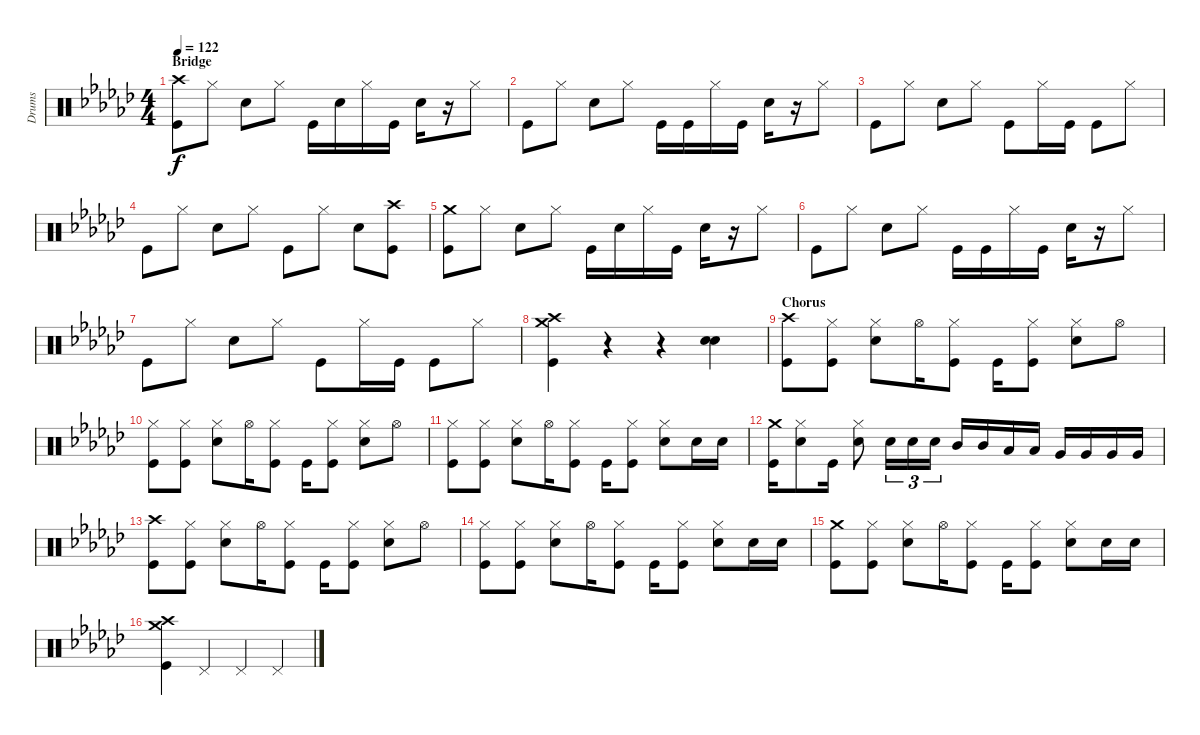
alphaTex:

\track ("Drums" "Drums") {instrument percussion}
\staff {score}
\articulation defaults
\ts (4 4)
\section ("" "Bridge")
\tempo 122
\clef neutral
\ks ebminor
("Crash high (hit)" "Kick (hit)").8{dy f} "Hi-Hat (closed)".8 "Snare (hit) 2".8 "Hi-Hat (closed)".8 "Kick (hit)".16 "Snare (hit) 2".16 "Hi-Hat (closed)".16 "Kick (hit)".16 "Snare (hit) 2".16 r.16 "Hi-Hat (closed)".8 |
"Kick (hit)".8 "Hi-Hat (closed)".8 "Snare (hit) 2".8 "Hi-Hat (closed)".8 "Kick (hit)".16 "Kick (hit)".16 "Hi-Hat (closed)".16 "Kick (hit)".16 "Snare (hit) 2".16 r.16 "Hi-Hat (closed)".8 |
"Kick (hit)".8 "Hi-Hat (closed)".8 "Snare (hit) 2".8 "Hi-Hat (closed)".8 "Kick (hit)".8 "Hi-Hat (closed)".16 "Kick (hit)".16 "Kick (hit)".8 "Hi-Hat (closed)".8 |
"Kick (hit)".8 "Hi-Hat (closed)".8 "Snare (hit) 2".8 "Hi-Hat (closed)".8 "Kick (hit)".8 "Hi-Hat (closed)".8 "Snare (hit) 2".8 ("Crash high (hit)" "Kick (hit)").8 |
("Crash medium (hit)" "Kick (hit)").8 "Hi-Hat (closed)".8 "Snare (hit) 2".8 "Hi-Hat (closed)".8 "Kick (hit)".16 "Snare (hit) 2".16 "Hi-Hat (closed)".16 "Kick (hit)".16 "Snare (hit) 2".16 r.16 "Hi-Hat (closed)".8 |
"Kick (hit)".8 "Hi-Hat (closed)".8 "Snare (hit) 2".8 "Hi-Hat (closed)".8 "Kick (hit)".16 "Kick (hit)".16 "Hi-Hat (closed)".16 "Kick (hit)".16 "Snare (hit) 2".16 r.16 "Hi-Hat (closed)".8 |
"Kick (hit)".8 "Hi-Hat (closed)".8 "Snare (hit) 2".8 "Hi-Hat (closed)".8 "Kick (hit)".8 "Hi-Hat (closed)".16 "Kick (hit)".16 "Kick (hit)".8 "Hi-Hat (closed)".8 |
("Crash medium (hit)" "Crash high (hit)" "Kick (hit)").4 r.4 r.4 ("Snare (hit) 2" "Snare (hit) 2").4 |
\section ("" "Chorus")
("Crash high (hit)" "Kick (hit)").8 ("Hi-Hat (closed)" "Kick (hit)").8 ("Hi-Hat (closed)" "Snare (hit) 2").8 "Hi-Hat (open)".16 ("Hi-Hat (closed)" "Kick (hit)").8 "Kick (hit)".16 ("Hi-Hat (closed)" "Kick (hit)").8 ("Hi-Hat (closed)" "Snare (hit) 2").8 "Hi-Hat (open)".8 |
("Hi-Hat (closed)" "Kick (hit)").8 ("Hi-Hat (closed)" "Kick (hit)").8 ("Hi-Hat (closed)" "Snare (hit) 2").8 "Hi-Hat (open)".16 ("Hi-Hat (closed)" "Kick (hit)").8 "Kick (hit)".16 ("Hi-Hat (closed)" "Kick (hit)").8 ("Hi-Hat (closed)" "Snare (hit) 2").8 "Hi-Hat (open)".8 |
("Hi-Hat (closed)" "Kick (hit)").8 ("Hi-Hat (closed)" "Kick (hit)").8 ("Hi-Hat (closed)" "Snare (hit) 2").8 "Hi-Hat (open)".16 ("Hi-Hat (closed)" "Kick (hit)").8 "Kick (hit)".16 ("Hi-Hat (closed)" "Kick (hit)").8 ("Hi-Hat (closed)" "Snare (hit) 2").8 "Snare (hit) 2".16 "Snare (hit) 2".16 |
("Crash medium (hit)" "Kick (hit)").16 ("Hi-Hat (closed)" "Snare (hit) 2").8 "Kick (hit)".16 ("Hi-Hat (closed)" "Snare (hit) 2").8 "Snare (hit) 2".16{tu (3 2)} "Snare (hit) 2".16{tu (3 2)} "Snare (hit) 2".16{tu (3 2)} "Mid Tom (hit)".16 "Mid Tom (hit)".16 "Low Tom (hit)".16 "Low Tom (hit)".16 "Very Low Tom (hit)".16 "Very Low Tom (hit)".16 "Very Low Tom (hit)".16 "Very Low Tom (hit)".16 |
("Crash high (hit)" "Kick (hit)").8 ("Hi-Hat (closed)" "Kick (hit)").8 ("Hi-Hat (closed)" "Snare (hit) 2").8 "Hi-Hat (open)".16 ("Hi-Hat (closed)" "Kick (hit)").8 "Kick (hit)".16 ("Hi-Hat (closed)" "Kick (hit)").8 ("Hi-Hat (closed)" "Snare (hit) 2").8 "Hi-Hat (open)".8 |
("Hi-Hat (closed)" "Kick (hit)").8 ("Hi-Hat (closed)" "Kick (hit)").8 ("Hi-Hat (closed)" "Snare (hit) 2").8 "Hi-Hat (open)".16 ("Hi-Hat (closed)" "Kick (hit)").8 "Kick (hit)".16 ("Hi-Hat (closed)" "Kick (hit)").8 ("Hi-Hat (closed)" "Snare (hit) 2").8 "Snare (hit) 2".16 "Snare (hit) 2".16 |
("Crash medium (hit)" "Kick (hit)").8 ("Hi-Hat (closed)" "Kick (hit)").8 ("Hi-Hat (closed)" "Snare (hit) 2").8 "Hi-Hat (open)".16 ("Hi-Hat (closed)" "Kick (hit)").8 "Kick (hit)".16 ("Hi-Hat (closed)" "Kick (hit)").8 ("Hi-Hat (closed)" "Snare (hit) 2").8 "Snare (hit) 2".16 "Snare (hit) 2".16 |
("Crash medium (hit)" "Crash high (hit)" "Kick (hit)").4 "Pedal Hi-Hat (hit)".4 "Pedal Hi-Hat (hit)".4 "Pedal Hi-Hat (hit)".4
